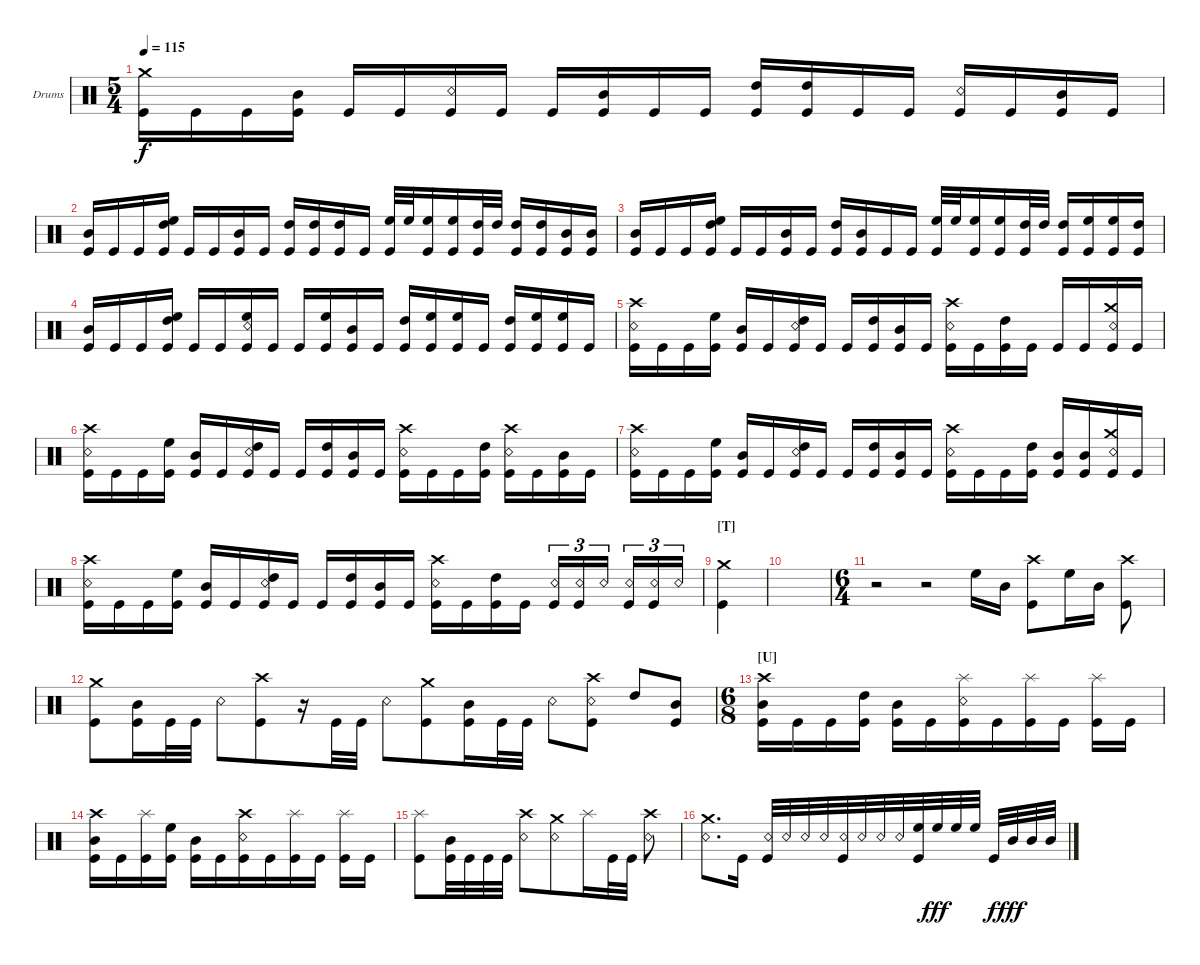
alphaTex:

\defaultSystemsLayout 4
\bracketExtendMode groupsimilarinstruments
\firstSystemTrackNameOrientation horizontal
\otherSystemsTrackNameOrientation horizontal
\track ("Drumkit" "Drums") {instrument percussion}
\staff {score}
\articulation defaults
\ts (5 4)
\tempo 115
\clef neutral
\scale
0.333333
\ks c
("Kick (hit)" "Crash medium (hit)").16{dy f} "Kick (hit)".16 "Kick (hit)".16 ("Kick (hit)" "Mid Tom (hit)").16 "Kick (hit)".16 "Kick (hit)".16 ("Kick (hit)" "Snare (rim shot)").16 "Kick (hit)".16 "Kick (hit)".16 ("Kick (hit)" "Mid Tom (hit)").16 "Kick (hit)".16 "Kick (hit)".16 ("Kick (hit)" "High Tom (hit)").16 ("Kick (hit)" "High Tom (hit)").16 "Kick (hit)".16 "Kick (hit)".16 ("Kick (hit)" "Snare (rim shot)").16 "Kick (hit)".16 ("Kick (hit)" "Mid Tom (hit)").16 "Kick (hit)".16 |
\scale
0.333333 ("Kick (hit)" "Mid Tom (hit)").16 "Kick (hit)".16 "Kick (hit)".16 ("Kick (hit)" "High Tom (hit)" "High Floor Tom (hit)").16 "Kick (hit)".16 "Kick (hit)".16 ("Kick (hit)" "Mid Tom (hit)").16 "Kick (hit)".16 ("Kick (hit)" "High Tom (hit)").16 ("Kick (hit)" "High Tom (hit)").16 ("Kick (hit)" "High Tom (hit)").16 "Kick (hit)".16 ("Kick (hit)" "High Floor Tom (hit)").32 "High Floor Tom (hit)".32 ("Kick (hit)" "High Floor Tom (hit)").16 ("Kick (hit)" "High Floor Tom (hit)").16 ("Kick (hit)" "High Tom (hit)").32 "High Tom (hit)".32 ("Kick (hit)" "High Tom (hit)").16 ("Kick (hit)" "High Tom (hit)").16 ("Kick (hit)" "Mid Tom (hit)").16 ("Kick (hit)" "Mid Tom (hit)").16 |
\scale
0.333333 ("Kick (hit)" "Mid Tom (hit)").16 "Kick (hit)".16 "Kick (hit)".16 ("Kick (hit)" "High Tom (hit)" "High Floor Tom (hit)").16 "Kick (hit)".16 "Kick (hit)".16 ("Kick (hit)" "Mid Tom (hit)").16 "Kick (hit)".16 ("Kick (hit)" "High Tom (hit)").16 ("Kick (hit)" "Mid Tom (hit)").16 "Kick (hit)".16 "Kick (hit)".16 ("Kick (hit)" "High Floor Tom (hit)").32 "High Floor Tom (hit)".32 ("Kick (hit)" "High Floor Tom (hit)").16 ("Kick (hit)" "High Floor Tom (hit)").16 ("Kick (hit)" "High Tom (hit)").32 "High Tom (hit)".32 ("Kick (hit)" "High Tom (hit)").16 ("Kick (hit)" "High Floor Tom (hit)").16 ("Kick (hit)" "High Floor Tom (hit)").16 ("Kick (hit)" "High Tom (hit)").16 |
\scale
0.333333 ("Kick (hit)" "Mid Tom (hit)").16 "Kick (hit)".16 "Kick (hit)".16 ("Kick (hit)" "High Floor Tom (hit)" "High Tom (hit)").16 "Kick (hit)".16 "Kick (hit)".16 ("Kick (hit)" "Snare (rim shot)" "High Floor Tom (hit)").16 "Kick (hit)".16 "Kick (hit)".16 ("Kick (hit)" "High Floor Tom (hit)").16 ("Kick (hit)" "Mid Tom (hit)").16 "Kick (hit)".16 ("Kick (hit)" "High Tom (hit)").16 ("Kick (hit)" "High Floor Tom (hit)").16 ("Kick (hit)" "High Floor Tom (hit)").16 "Kick (hit)".16 ("Kick (hit)" "High Tom (hit)").16 ("Kick (hit)" "High Floor Tom (hit)").16 ("Kick (hit)" "High Floor Tom (hit)").16 "Kick (hit)".16 |
\scale
0.333333 ("Kick (hit)" "Crash high (hit)" "Snare (rim shot)").16 "Kick (hit)".16 "Kick (hit)".16 ("Kick (hit)" "High Floor Tom (hit)").16 ("Kick (hit)" "Mid Tom (hit)").16 "Kick (hit)".16 ("Kick (hit)" "Snare (rim shot)" "High Tom (hit)").16 "Kick (hit)".16 "Kick (hit)".16 ("Kick (hit)" "High Tom (hit)").16 ("Kick (hit)" "Mid Tom (hit)").16 "Kick (hit)".16 ("Kick (hit)" "Snare (rim shot)" "Crash high (hit)").16 "Kick (hit)".16 ("Kick (hit)" "High Tom (hit)").16 "Kick (hit)".16 "Kick (hit)".16 "Kick (hit)".16 ("Kick (hit)" "Snare (rim shot)" "Crash medium (hit)").16 "Kick (hit)".16 |
\scale
0.333333 ("Kick (hit)" "Crash high (hit)" "Snare (rim shot)").16 "Kick (hit)".16 "Kick (hit)".16 ("Kick (hit)" "High Floor Tom (hit)").16 ("Kick (hit)" "Mid Tom (hit)").16 "Kick (hit)".16 ("Kick (hit)" "Snare (rim shot)" "High Tom (hit)").16 "Kick (hit)".16 "Kick (hit)".16 ("Kick (hit)" "High Tom (hit)").16 ("Kick (hit)" "Mid Tom (hit)").16 "Kick (hit)".16 ("Kick (hit)" "Snare (rim shot)" "Crash high (hit)").16 "Kick (hit)".16 "Kick (hit)".16 ("Kick (hit)" "High Tom (hit)").16 ("Kick (hit)" "Crash high (hit)" "Snare (rim shot)").16 "Kick (hit)".16 ("Kick (hit)" "Mid Tom (hit)").16 "Kick (hit)".16 |
\scale
0.333333 ("Kick (hit)" "Crash high (hit)" "Snare (rim shot)").16 "Kick (hit)".16 "Kick (hit)".16 ("Kick (hit)" "High Floor Tom (hit)").16 ("Kick (hit)" "Mid Tom (hit)").16 "Kick (hit)".16 ("Kick (hit)" "Snare (rim shot)" "High Tom (hit)").16 "Kick (hit)".16 "Kick (hit)".16 ("Kick (hit)" "High Tom (hit)").16 ("Kick (hit)" "Mid Tom (hit)").16 "Kick (hit)".16 ("Kick (hit)" "Snare (rim shot)" "Crash high (hit)").16 "Kick (hit)".16 "Kick (hit)".16 ("Kick (hit)" "High Tom (hit)").16 ("Kick (hit)" "Mid Tom (hit)").16 ("Kick (hit)" "Mid Tom (hit)").16 ("Kick (hit)" "Snare (rim shot)" "Crash medium (hit)").16 "Kick (hit)".16 |
\scale
0.333333 ("Kick (hit)" "Crash high (hit)" "Snare (rim shot)").16 "Kick (hit)".16 "Kick (hit)".16 ("Kick (hit)" "High Floor Tom (hit)").16 ("Kick (hit)" "Mid Tom (hit)").16 "Kick (hit)".16 ("Kick (hit)" "Snare (rim shot)" "High Tom (hit)").16 "Kick (hit)".16 "Kick (hit)".16 ("Kick (hit)" "High Tom (hit)").16 ("Kick (hit)" "Mid Tom (hit)").16 "Kick (hit)".16 ("Kick (hit)" "Snare (rim shot)" "Crash high (hit)").16 "Kick (hit)".16 ("Kick (hit)" "High Tom (hit)").16 "Kick (hit)".16 ("Kick (hit)" "Snare (rim shot)").16{tu (3 2)} ("Kick (hit)" "Snare (rim shot)").16{tu (3 2)} "Snare (rim shot)".16{tu (3 2)} ("Kick (hit)" "Snare (rim shot)").16{tu (3 2)} ("Kick (hit)" "Snare (rim shot)").16{tu (3 2)} "Snare (rim shot)".16{tu (3 2)} |
\beaming (8 3 3 3 1)
\section ("T" "")
\scale
0.333333 ("Kick (hit)" "Crash medium (hit)").4 |
\scale
0.263889 |
\ts (6 4)
\beaming (8 3 3 3 2 1)
\scale
0.472222 r.2 r.2 "High Floor Tom (hit)".16 "Mid Tom (hit)".16 ("Kick (hit)" "Crash high (hit)").8 "High Floor Tom (hit)".16 "Mid Tom (hit)".16 ("Kick (hit)" "Crash high (hit)").8 |
\beaming (8 2 3 3 2 2)
\scale
0.263889 ("Kick (hit)" "Crash medium (hit)").8 ("Kick (hit)" "Mid Tom (hit)").16 "Kick (hit)".32 "Kick (hit)".32 "Snare (rim shot)".8 ("Kick (hit)" "Crash high (hit)").8 r.16 "Kick (hit)".32 "Kick (hit)".32 "Snare (rim shot)".8 ("Kick (hit)" "Crash medium (hit)").8 ("Kick (hit)" "Mid Tom (hit)").16 "Kick (hit)".32 "Kick (hit)".32 "Snare (rim shot)".8 ("Kick (hit)" "Crash high (hit)" "Snare (rim shot)").8 "High Tom (hit)".8 ("Kick (hit)" "Mid Tom (hit)").8 |
\ts (6 8)
\section ("U" "")
\scale
0.472222 ("Kick (hit)" "Mid Tom (hit)" "Crash high (hit)").16 "Kick (hit)".16 "Kick (hit)".16 ("Kick (hit)" "High Tom (hit)").16 ("Kick (hit)" "Mid Tom (hit)").16 "Kick (hit)".16 ("Kick (hit)" "Snare (rim shot)" "Splash (hit)").16 "Kick (hit)".16 ("Kick (hit)" "Splash (hit)").16 "Kick (hit)".16 ("Kick (hit)" "Splash (hit)").16 "Kick (hit)".16 |
\scale
0.263889 ("Kick (hit)" "Crash high (hit)" "Mid Tom (hit)").16 "Kick (hit)".16 ("Kick (hit)" "Splash (hit)").16 ("Kick (hit)" "High Floor Tom (hit)").16 ("Kick (hit)" "Mid Tom (hit)").16 "Kick (hit)".16 ("Kick (hit)" "Snare (rim shot)" "Crash high (hit)").16 "Kick (hit)".16 ("Kick (hit)" "Splash (hit)").16 "Kick (hit)".16 ("Kick (hit)" "Splash (hit)").16 "Kick (hit)".16 |
\scale
0.263889 ("Kick (hit)" "Splash (hit)").8 ("Kick (hit)" "Mid Tom (hit)").32 "Kick (hit)".32 "Kick (hit)".32 "Kick (hit)".32 ("Snare (rim shot)" "Crash high (hit)").8 ("Snare (rim shot)" "Crash medium (hit)").8 "Splash (hit)".16 "Kick (hit)".32 "Kick (hit)".32 ("Snare (rim shot)" "Crash high (hit)").8 |
\scale
0.333333 ("Snare (rim shot)" "Crash medium (hit)").8{d} "Kick (hit)".16 ("Kick (hit)" "Snare (rim shot)").32 "Snare (rim shot)".32 "Snare (rim shot)".32 "Snare (rim shot)".32 ("Kick (hit)" "Snare (rim shot)").32 "Snare (rim shot)".32 "Snare (rim shot)".32 "Snare (rim shot)".32 ("High Floor Tom (hit)" "Kick (hit)").32 "High Floor Tom (hit)".32{dy fff} "High Floor Tom (hit)".32 "High Floor Tom (hit)".32 "Kick (hit)".32{dy f} "Mid Tom (hit)".32{dy fff} "Mid Tom (hit)".32 "Mid Tom (hit)".32
